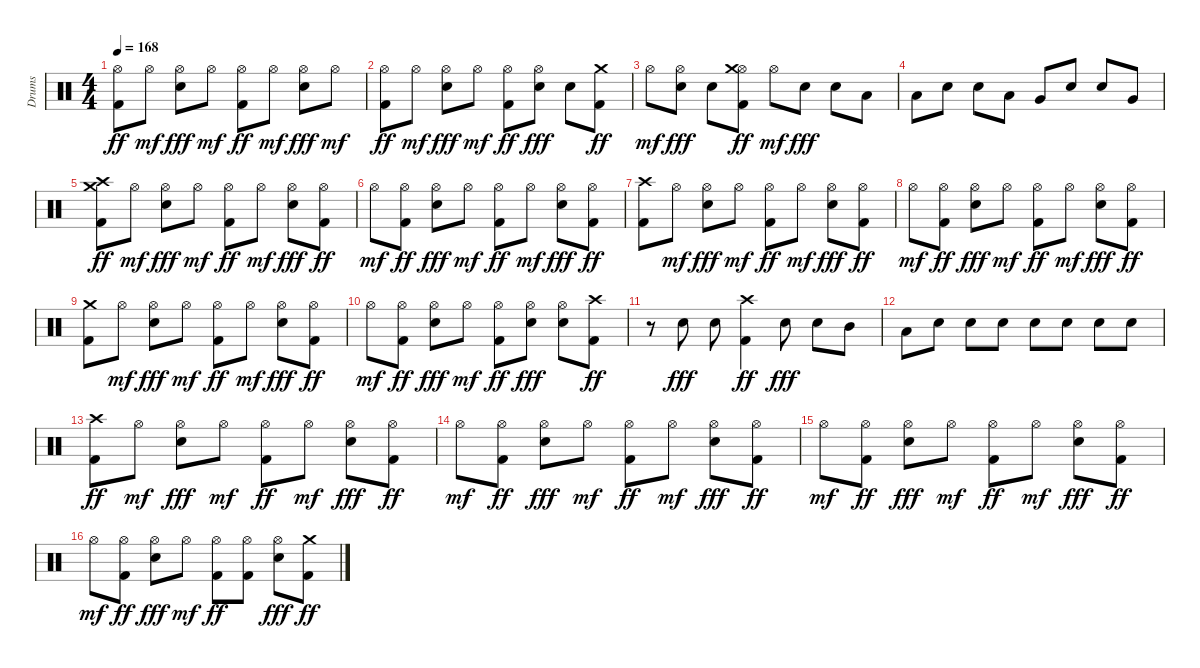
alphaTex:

\track ("Drums" "Drums") {instrument percussion}
\staff {score}
\articulation defaults
\ts (4 4)
\tempo 168
\clef neutral
\ks c
("Hi-Hat (open)" "Kick (hit) 2").8{dy ff} "Hi-Hat (open)".8{dy mf} ("Hi-Hat (open)" "Snare (hit) 2").8{dy fff} "Hi-Hat (open)".8{dy mf} ("Hi-Hat (open)" "Kick (hit) 2").8{dy ff} "Hi-Hat (open)".8{dy mf} ("Hi-Hat (open)" "Snare (hit) 2").8{dy fff} "Hi-Hat (open)".8{dy mf} |
("Hi-Hat (open)" "Kick (hit) 2").8{dy ff} "Hi-Hat (open)".8{dy mf} ("Hi-Hat (open)" "Snare (hit) 2").8{dy fff} "Hi-Hat (open)".8{dy mf} ("Hi-Hat (open)" "Kick (hit) 2").8{dy ff} ("Hi-Hat (open)" "Snare (hit) 2").8{dy fff} "Snare (hit) 2".8 ("Kick (hit) 2" "Crash medium (hit)").8{dy ff} |
"Hi-Hat (open)".8{dy mf} ("Hi-Hat (open)" "Snare (hit) 2").8{dy fff} "Electric Snare (hit)".8 ("Hi-Hat (open)" "Kick (hit) 2" "Crash medium (hit)").8{dy ff} "Hi-Hat (open)".8{dy mf} "Snare (hit) 2".8{dy fff} "Snare (hit) 2".8 "Low Tom (hit)".8 |
"Low Tom (hit)".8 "Snare (hit) 2".8 "Snare (hit) 2".8 "Low Tom (hit)".8 "Very Low Tom (hit)".8 "Snare (hit) 2".8 "Snare (hit) 2".8 "Very Low Tom (hit)".8 |
("Kick (hit) 2" "Crash high (hit)" "Crash medium (hit)").8{dy ff} "Hi-Hat (open)".8{dy mf} ("Hi-Hat (open)" "Snare (hit) 2").8{dy fff} "Hi-Hat (open)".8{dy mf} ("Hi-Hat (open)" "Kick (hit) 2").8{dy ff} "Hi-Hat (open)".8{dy mf} ("Hi-Hat (open)" "Snare (hit) 2").8{dy fff} ("Hi-Hat (open)" "Kick (hit) 2").8{dy ff} |
"Hi-Hat (open)".8{dy mf} ("Hi-Hat (open)" "Kick (hit) 2").8{dy ff} ("Hi-Hat (open)" "Snare (hit) 2").8{dy fff} "Hi-Hat (open)".8{dy mf} ("Hi-Hat (open)" "Kick (hit) 2").8{dy ff} "Hi-Hat (open)".8{dy mf} ("Hi-Hat (open)" "Snare (hit) 2").8{dy fff} ("Hi-Hat (open)" "Kick (hit) 2").8{dy ff} |
("Kick (hit) 2" "Crash high (hit)").8 "Hi-Hat (open)".8{dy mf} ("Hi-Hat (open)" "Snare (hit) 2").8{dy fff} "Hi-Hat (open)".8{dy mf} ("Hi-Hat (open)" "Kick (hit) 2").8{dy ff} "Hi-Hat (open)".8{dy mf} ("Hi-Hat (open)" "Snare (hit) 2").8{dy fff} ("Hi-Hat (open)" "Kick (hit) 2").8{dy ff} |
"Hi-Hat (open)".8{dy mf} ("Hi-Hat (open)" "Kick (hit) 2").8{dy ff} ("Hi-Hat (open)" "Snare (hit) 2").8{dy fff} "Hi-Hat (open)".8{dy mf} ("Hi-Hat (open)" "Kick (hit) 2").8{dy ff} "Hi-Hat (open)".8{dy mf} ("Hi-Hat (open)" "Snare (hit) 2").8{dy fff} ("Hi-Hat (open)" "Kick (hit) 2").8{dy ff} |
("Kick (hit) 2" "Crash medium (hit)").8 "Hi-Hat (open)".8{dy mf} ("Hi-Hat (open)" "Snare (hit) 2").8{dy fff} "Hi-Hat (open)".8{dy mf} ("Hi-Hat (open)" "Kick (hit) 2").8{dy ff} "Hi-Hat (open)".8{dy mf} ("Hi-Hat (open)" "Snare (hit) 2").8{dy fff} ("Hi-Hat (open)" "Kick (hit) 2").8{dy ff} |
"Hi-Hat (open)".8{dy mf} ("Hi-Hat (open)" "Kick (hit) 2").8{dy ff} ("Hi-Hat (open)" "Snare (hit) 2").8{dy fff} "Hi-Hat (open)".8{dy mf} ("Hi-Hat (open)" "Kick (hit) 2").8{dy ff} ("Hi-Hat (open)" "Snare (hit) 2").8{dy fff} ("Hi-Hat (open)" "Snare (hit) 2").8 ("Kick (hit) 2" "Crash high (hit)").8{dy ff} |
r.8 "Snare (hit) 2".8{dy fff} "Snare (hit) 2".8 ("Kick (hit) 2" "Crash high (hit)").4{dy ff} "Snare (hit) 2".8{dy fff} "Snare (hit) 2".8 "Mid Tom (hit)".8 |
"Low Tom (hit)".8 "Snare (hit) 2".8 "Snare (hit) 2".8 "Snare (hit) 2".8 "Snare (hit) 2".8 "Snare (hit) 2".8 "Snare (hit) 2".8 "Snare (hit) 2".8 |
("Kick (hit) 2" "Crash high (hit)").8{dy ff} "Hi-Hat (open)".8{dy mf} ("Hi-Hat (open)" "Snare (hit) 2").8{dy fff} "Hi-Hat (open)".8{dy mf} ("Hi-Hat (open)" "Kick (hit) 2").8{dy ff} "Hi-Hat (open)".8{dy mf} ("Hi-Hat (open)" "Snare (hit) 2").8{dy fff} ("Hi-Hat (open)" "Kick (hit) 2").8{dy ff} |
"Hi-Hat (open)".8{dy mf} ("Hi-Hat (open)" "Kick (hit) 2").8{dy ff} ("Hi-Hat (open)" "Snare (hit) 2").8{dy fff} "Hi-Hat (open)".8{dy mf} ("Hi-Hat (open)" "Kick (hit) 2").8{dy ff} "Hi-Hat (open)".8{dy mf} ("Hi-Hat (open)" "Snare (hit) 2").8{dy fff} ("Hi-Hat (open)" "Kick (hit) 2").8{dy ff} |
"Hi-Hat (open)".8{dy mf} ("Hi-Hat (open)" "Kick (hit) 2").8{dy ff} ("Hi-Hat (open)" "Snare (hit) 2").8{dy fff} "Hi-Hat (open)".8{dy mf} ("Hi-Hat (open)" "Kick (hit) 2").8{dy ff} "Hi-Hat (open)".8{dy mf} ("Hi-Hat (open)" "Snare (hit) 2").8{dy fff} ("Hi-Hat (open)" "Kick (hit) 2").8{dy ff} |
"Hi-Hat (open)".8{dy mf} ("Hi-Hat (open)" "Kick (hit) 2").8{dy ff} ("Hi-Hat (open)" "Snare (hit) 2").8{dy fff} "Hi-Hat (open)".8{dy mf} ("Hi-Hat (open)" "Kick (hit) 2").8{dy ff} ("Hi-Hat (open)" "Kick (hit) 2").8 ("Hi-Hat (open)" "Snare (hit) 2").8{dy fff} ("Kick (hit) 2" "Crash medium (hit)").8{dy ff}
